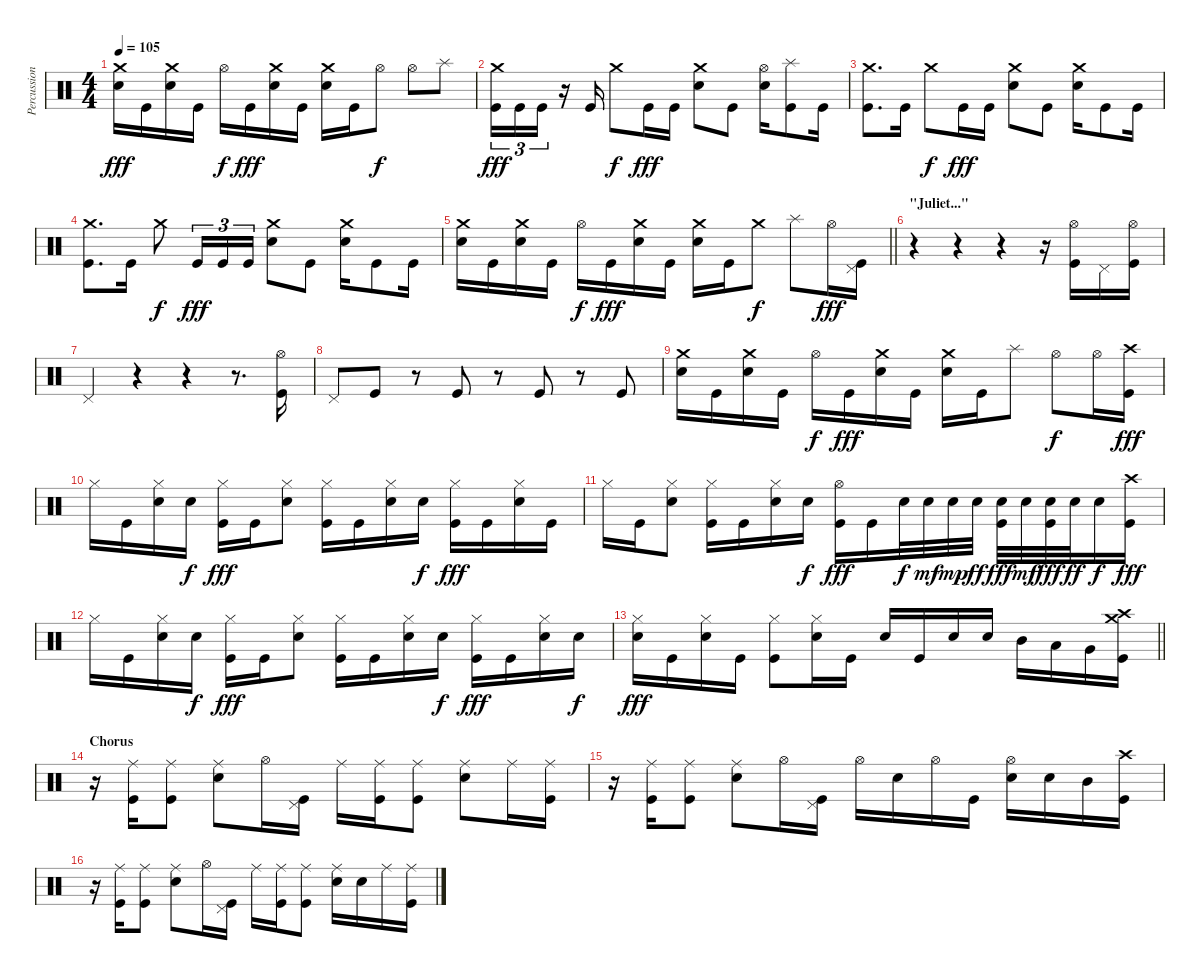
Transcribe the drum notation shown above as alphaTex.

\track ("Percussion" "Percussion") {instrument percussion}
\staff {score}
\articulation defaults
\ts (4 4)
\tempo 105
\clef neutral
\ks c
("Crash medium (hit)" "Electric Snare (hit)").16{dy fff} "Kick (hit)".16 ("Crash medium (hit)" "Electric Snare (hit)").16 "Kick (hit)".16 "Hi-Hat (open)".16{dy f} "Kick (hit)".16{dy fff} ("Crash medium (hit)" "Electric Snare (hit)").16 "Kick (hit)".16 ("Crash medium (hit)" "Electric Snare (hit)").16 "Kick (hit)".16 "Hi-Hat (open)".8{dy f} "Hi-Hat (open)".8 "Splash (hit)".8 |
("Crash medium (hit)" "Kick (hit)").16{tu (3 2) dy fff} "Kick (hit)".16{tu (3 2)} "Kick (hit)".16{tu (3 2)} r.16 "Kick (hit)".16 "Crash medium (hit)".8{dy f} "Kick (hit)".16{dy fff} "Kick (hit)".16 ("Crash medium (hit)" "Electric Snare (hit)").8 "Kick (hit)".8 ("Hi-Hat (open)" "Electric Snare (hit)").16 ("Splash (hit)" "Kick (hit)").8 "Kick (hit)".16 |
("Crash medium (hit)" "Kick (hit)").8{d} "Kick (hit)".16 "Crash medium (hit)".8{dy f} "Kick (hit)".16{dy fff} "Kick (hit)".16 ("Crash medium (hit)" "Electric Snare (hit)").8 "Kick (hit)".8 ("Crash medium (hit)" "Electric Snare (hit)").16 "Kick (hit)".8 "Kick (hit)".16 |
("Crash medium (hit)" "Kick (hit)").8{d} "Kick (hit)".16 "Crash medium (hit)".8{dy f} "Kick (hit)".16{tu (3 2) dy fff} "Kick (hit)".16{tu (3 2)} "Kick (hit)".16{tu (3 2)} ("Crash medium (hit)" "Electric Snare (hit)").8 "Kick (hit)".8 ("Crash medium (hit)" "Electric Snare (hit)").16 "Kick (hit)".8 "Kick (hit)".16 |
\barLineRight lightlight
("Crash medium (hit)" "Electric Snare (hit)").16 "Kick (hit)".16 ("Crash medium (hit)" "Electric Snare (hit)").16 "Kick (hit)".16 "Hi-Hat (open)".16{dy f} "Kick (hit)".16{dy fff} ("Crash medium (hit)" "Electric Snare (hit)").16 "Kick (hit)".16 ("Crash medium (hit)" "Electric Snare (hit)").16 "Kick (hit)".16 "Crash medium (hit)".8{dy f} "Splash (hit)".8 "Hi-Hat (open)".16{dy fff} ("Pedal Hi-Hat (hit)" "Kick (hit)").16 |
\section ("" "\"Juliet...\"")
r.4 r.4 r.4 r.16 ("Hi-Hat (open)" "Kick (hit)").16 "Pedal Hi-Hat (hit)".16 ("Hi-Hat (open)" "Kick (hit)").16 |
"Pedal Hi-Hat (hit)".4 r.4 r.4 r.8{d} ("Hi-Hat (open)" "Kick (hit)").16 |
"Pedal Hi-Hat (hit)".8 "Kick (hit)".8 r.8 "Kick (hit)".8 r.8 "Kick (hit)".8 r.8 "Kick (hit)".8 |
("Crash medium (hit)" "Electric Snare (hit)").16 "Kick (hit)".16 ("Crash medium (hit)" "Electric Snare (hit)").16 "Kick (hit)".16 "Hi-Hat (open)".16{dy f} "Kick (hit)".16{dy fff} ("Crash medium (hit)" "Electric Snare (hit)").16 "Kick (hit)".16 ("Crash medium (hit)" "Electric Snare (hit)").16 "Kick (hit)".16 "Splash (hit)".8 "Hi-Hat (open)".8{dy f} "Hi-Hat (open)".16 ("Crash high (hit)" "Kick (hit)").16{dy fff} |
"Hi-Hat (closed)".16 "Kick (hit)".16 ("Hi-Hat (closed)" "Electric Snare (hit)").16 "Electric Snare (hit)".16{dy f} ("Hi-Hat (closed)" "Kick (hit)").16{dy fff} "Kick (hit)".16 ("Hi-Hat (closed)" "Electric Snare (hit)").8 ("Hi-Hat (closed)" "Kick (hit)").16 "Kick (hit)".16 ("Hi-Hat (closed)" "Electric Snare (hit)").16 "Electric Snare (hit)".16{dy f} ("Hi-Hat (closed)" "Kick (hit)").16{dy fff} "Kick (hit)".16 ("Hi-Hat (closed)" "Electric Snare (hit)").16 "Kick (hit)".16 |
"Hi-Hat (closed)".16 "Kick (hit)".16 ("Hi-Hat (closed)" "Electric Snare (hit)").8 ("Hi-Hat (closed)" "Kick (hit)").16 "Kick (hit)".16 ("Hi-Hat (closed)" "Electric Snare (hit)").16 "Electric Snare (hit)".16{dy f} ("Hi-Hat (open)" "Kick (hit)").16{dy fff} "Kick (hit)".16 "Electric Snare (hit)".32{dy f} "Electric Snare (hit)".32{dy mf} "Electric Snare (hit)".32{dy mp} "Electric Snare (hit)".32{dy ff} ("Electric Snare (hit)" "Kick (hit)").32{dy fff} "Electric Snare (hit)".32{dy mf} ("Electric Snare (hit)" "Kick (hit)").32{dy fff} "Electric Snare (hit)".32{dy ff} "Electric Snare (hit)".16{dy f} ("Crash high (hit)" "Kick (hit)").16{dy fff} |
"Hi-Hat (closed)".16 "Kick (hit)".16 ("Hi-Hat (closed)" "Electric Snare (hit)").16 "Electric Snare (hit)".16{dy f} ("Hi-Hat (closed)" "Kick (hit)").16{dy fff} "Kick (hit)".16 ("Hi-Hat (closed)" "Electric Snare (hit)").8 ("Hi-Hat (closed)" "Kick (hit)").16 "Kick (hit)".16 ("Hi-Hat (closed)" "Electric Snare (hit)").16 "Electric Snare (hit)".16{dy f} ("Hi-Hat (closed)" "Kick (hit)").16{dy fff} "Kick (hit)".16 ("Hi-Hat (closed)" "Electric Snare (hit)").16 "Electric Snare (hit)".16{dy f} |
\barLineRight lightlight
("Hi-Hat (closed)" "Electric Snare (hit)").16{dy fff} "Kick (hit)".16 ("Hi-Hat (closed)" "Electric Snare (hit)").16 "Kick (hit)".16 ("Hi-Hat (closed)" "Kick (hit)").8 ("Hi-Hat (closed)" "Electric Snare (hit)").16 "Kick (hit)".16 "Electric Snare (hit)".16 "Kick (hit)".16 "Electric Snare (hit)".16 "Electric Snare (hit)".16 "Mid Tom (hit)".16 "Low Tom (hit)".16 "Very Low Tom (hit)".16 ("Crash high (hit)" "Crash medium (hit)" "Kick (hit)").16 |
\section ("" "Chorus")
r.16 ("Ride (middle)" "Kick (hit)").16 ("Ride (middle)" "Kick (hit)").8 ("Ride (middle)" "Electric Snare (hit)").8 "Hi-Hat (open)".16 ("Pedal Hi-Hat (hit)" "Kick (hit)").16 "Ride (middle)".16 ("Ride (middle)" "Kick (hit)").16 ("Ride (middle)" "Kick (hit)").8 ("Ride (middle)" "Electric Snare (hit)").8 "Ride (middle)".16 ("Ride (middle)" "Kick (hit)").16 |
r.16 ("Ride (middle)" "Kick (hit)").16 ("Ride (middle)" "Kick (hit)").8 ("Ride (middle)" "Electric Snare (hit)").8 "Hi-Hat (open)".16 ("Pedal Hi-Hat (hit)" "Kick (hit)").16 "Hi-Hat (open)".16 "Electric Snare (hit)".16 "Hi-Hat (open)".16 "Kick (hit)".16 ("Hi-Hat (open)" "Electric Snare (hit)").16 "Electric Snare (hit)".16 "Mid Tom (hit)".16 ("Crash high (hit)" "Kick (hit)").16 |
r.16 ("Ride (middle)" "Kick (hit)").16 ("Ride (middle)" "Kick (hit)").8 ("Ride (middle)" "Electric Snare (hit)").8 "Hi-Hat (open)".16 ("Pedal Hi-Hat (hit)" "Kick (hit)").16 "Ride (middle)".16 ("Ride (middle)" "Kick (hit)").16 ("Ride (middle)" "Kick (hit)").8 ("Ride (middle)" "Electric Snare (hit)").16 "Electric Snare (hit)".16 "Ride (middle)".16 ("Ride (middle)" "Kick (hit)").16
